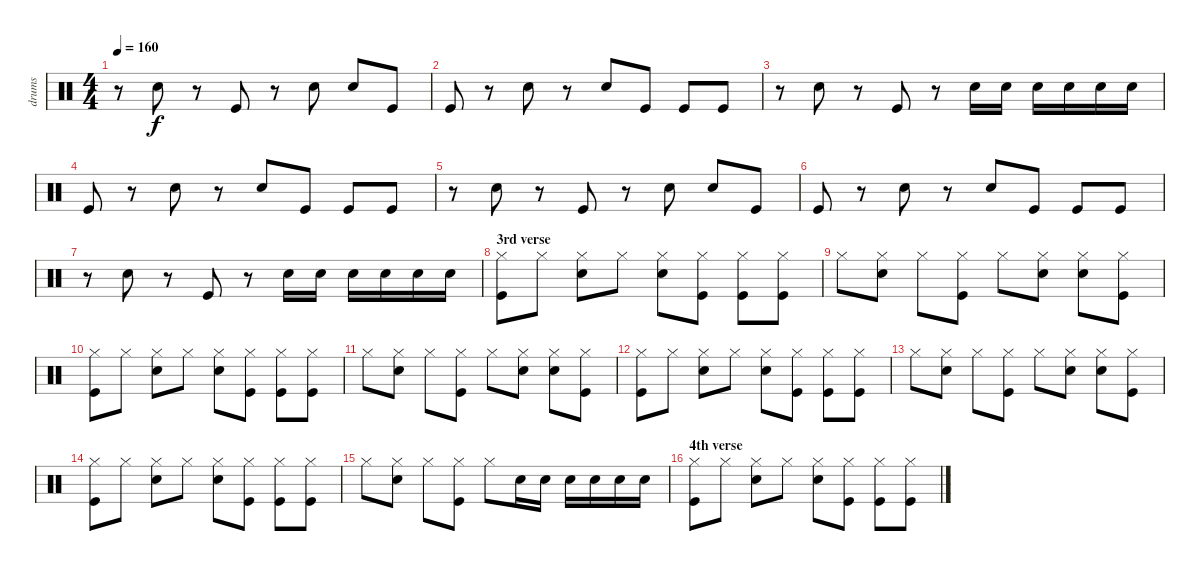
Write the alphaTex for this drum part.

\track ("drums" "drums") {instrument percussion}
\staff {score}
\articulation defaults
\ts (4 4)
\tempo 160
\clef neutral
\ks c
r.8{dy f} "Electric Snare (hit)".8 r.8 "Kick (hit)".8 r.8 "Electric Snare (hit)".8 "Electric Snare (hit)".8 "Kick (hit)".8 |
"Kick (hit)".8 r.8 "Electric Snare (hit)".8 r.8 "Electric Snare (hit)".8 "Kick (hit)".8 "Kick (hit)".8 "Kick (hit)".8 |
r.8 "Electric Snare (hit)".8 r.8 "Kick (hit)".8 r.8 "Electric Snare (hit)".16 "Electric Snare (hit)".16 "Electric Snare (hit)".16 "Electric Snare (hit)".16 "Electric Snare (hit)".16 "Electric Snare (hit)".16 |
"Kick (hit)".8 r.8 "Electric Snare (hit)".8 r.8 "Electric Snare (hit)".8 "Kick (hit)".8 "Kick (hit)".8 "Kick (hit)".8 |
r.8 "Electric Snare (hit)".8 r.8 "Kick (hit)".8 r.8 "Electric Snare (hit)".8 "Electric Snare (hit)".8 "Kick (hit)".8 |
"Kick (hit)".8 r.8 "Electric Snare (hit)".8 r.8 "Electric Snare (hit)".8 "Kick (hit)".8 "Kick (hit)".8 "Kick (hit)".8 |
r.8 "Electric Snare (hit)".8 r.8 "Kick (hit)".8 r.8 "Electric Snare (hit)".16 "Electric Snare (hit)".16 "Electric Snare (hit)".16 "Electric Snare (hit)".16 "Electric Snare (hit)".16 "Electric Snare (hit)".16 |
\section ("" "3rd verse")
("Hi-Hat (closed)" "Kick (hit)").8 "Hi-Hat (closed)".8 ("Hi-Hat (closed)" "Electric Snare (hit)").8 "Hi-Hat (closed)".8 ("Hi-Hat (closed)" "Electric Snare (hit)").8 ("Hi-Hat (closed)" "Kick (hit)").8 ("Hi-Hat (closed)" "Kick (hit)").8 ("Hi-Hat (closed)" "Kick (hit)").8 |
"Hi-Hat (closed)".8 ("Hi-Hat (closed)" "Electric Snare (hit)").8 "Hi-Hat (closed)".8 ("Hi-Hat (closed)" "Kick (hit)").8 "Hi-Hat (closed)".8 ("Hi-Hat (closed)" "Electric Snare (hit)").8 ("Hi-Hat (closed)" "Electric Snare (hit)").8 ("Hi-Hat (closed)" "Kick (hit)").8 |
("Hi-Hat (closed)" "Kick (hit)").8 "Hi-Hat (closed)".8 ("Hi-Hat (closed)" "Electric Snare (hit)").8 "Hi-Hat (closed)".8 ("Hi-Hat (closed)" "Electric Snare (hit)").8 ("Hi-Hat (closed)" "Kick (hit)").8 ("Hi-Hat (closed)" "Kick (hit)").8 ("Hi-Hat (closed)" "Kick (hit)").8 |
"Hi-Hat (closed)".8 ("Hi-Hat (closed)" "Electric Snare (hit)").8 "Hi-Hat (closed)".8 ("Hi-Hat (closed)" "Kick (hit)").8 "Hi-Hat (closed)".8 ("Hi-Hat (closed)" "Electric Snare (hit)").8 ("Hi-Hat (closed)" "Electric Snare (hit)").8 ("Hi-Hat (closed)" "Kick (hit)").8 |
("Hi-Hat (closed)" "Kick (hit)").8 "Hi-Hat (closed)".8 ("Hi-Hat (closed)" "Electric Snare (hit)").8 "Hi-Hat (closed)".8 ("Hi-Hat (closed)" "Electric Snare (hit)").8 ("Hi-Hat (closed)" "Kick (hit)").8 ("Hi-Hat (closed)" "Kick (hit)").8 ("Hi-Hat (closed)" "Kick (hit)").8 |
"Hi-Hat (closed)".8 ("Hi-Hat (closed)" "Electric Snare (hit)").8 "Hi-Hat (closed)".8 ("Hi-Hat (closed)" "Kick (hit)").8 "Hi-Hat (closed)".8 ("Hi-Hat (closed)" "Electric Snare (hit)").8 ("Hi-Hat (closed)" "Electric Snare (hit)").8 ("Hi-Hat (closed)" "Kick (hit)").8 |
("Hi-Hat (closed)" "Kick (hit)").8 "Hi-Hat (closed)".8 ("Hi-Hat (closed)" "Electric Snare (hit)").8 "Hi-Hat (closed)".8 ("Hi-Hat (closed)" "Electric Snare (hit)").8 ("Hi-Hat (closed)" "Kick (hit)").8 ("Hi-Hat (closed)" "Kick (hit)").8 ("Hi-Hat (closed)" "Kick (hit)").8 |
"Hi-Hat (closed)".8 ("Hi-Hat (closed)" "Electric Snare (hit)").8 "Hi-Hat (closed)".8 ("Hi-Hat (closed)" "Kick (hit)").8 "Hi-Hat (closed)".8 "Electric Snare (hit)".16 "Electric Snare (hit)".16 "Electric Snare (hit)".16 "Electric Snare (hit)".16 "Electric Snare (hit)".16 "Electric Snare (hit)".16 |
\section ("" "4th verse")
("Hi-Hat (closed)" "Kick (hit)").8 "Hi-Hat (closed)".8 ("Hi-Hat (closed)" "Electric Snare (hit)").8 "Hi-Hat (closed)".8 ("Hi-Hat (closed)" "Electric Snare (hit)").8 ("Hi-Hat (closed)" "Kick (hit)").8 ("Hi-Hat (closed)" "Kick (hit)").8 ("Hi-Hat (closed)" "Kick (hit)").8
